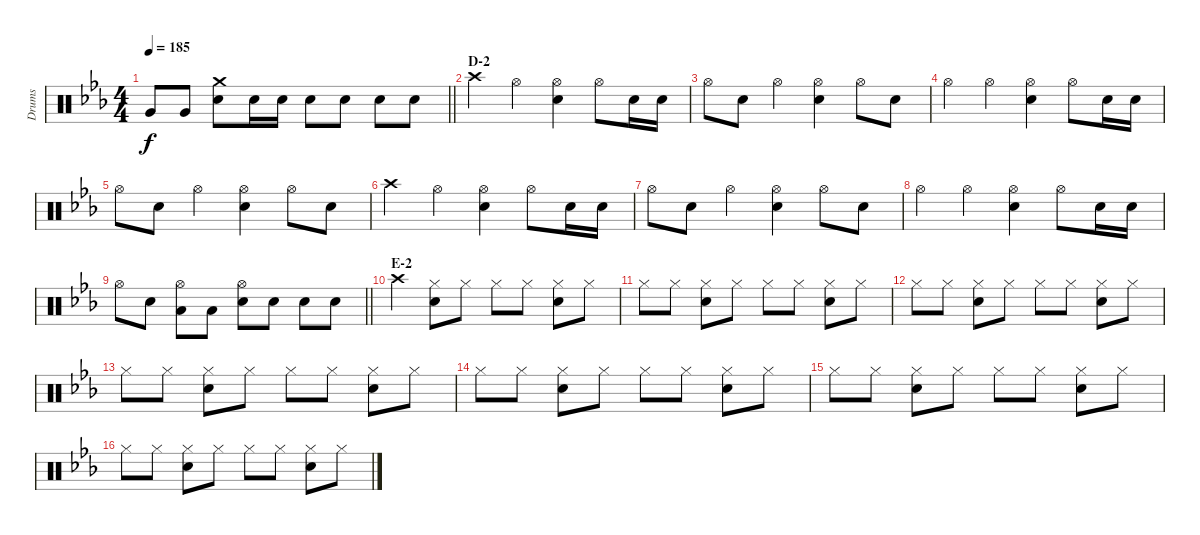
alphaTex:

\track ("Drums" "Drums") {instrument percussion}
\staff {score}
\articulation defaults
\ts (4 4)
\tempo 185
\clef neutral
\barLineRight lightlight
\ks eb "Very Low Tom (hit)".8{dy f} "Very Low Tom (hit)".8
("Crash medium (hit)" "Snare (hit) 2").8 "Snare (hit) 2".16 "Snare (hit) 2".16 "Snare (hit) 2".8 "Snare (hit) 2".8 "Snare (hit) 2".8 "Snare (hit) 2".8 |
\section ("" "D-2")
"Crash high (hit)".4 "Hi-Hat (open)".4 ("Hi-Hat (open)" "Snare (hit) 2").4 "Hi-Hat (open)".8 "Snare (hit) 2".16 "Snare (hit) 2".16 |
"Hi-Hat (open)".8 "Snare (hit) 2".8 "Hi-Hat (open)".4 ("Hi-Hat (open)" "Snare (hit) 2").4 "Hi-Hat (open)".8 "Snare (hit) 2".8 |
"Hi-Hat (open)".4 "Hi-Hat (open)".4 ("Hi-Hat (open)" "Snare (hit) 2").4 "Hi-Hat (open)".8 "Snare (hit) 2".16 "Snare (hit) 2".16 |
"Hi-Hat (open)".8 "Snare (hit) 2".8 "Hi-Hat (open)".4 ("Hi-Hat (open)" "Snare (hit) 2").4 "Hi-Hat (open)".8 "Snare (hit) 2".8 |
"Crash high (hit)".4 "Hi-Hat (open)".4 ("Hi-Hat (open)" "Snare (hit) 2").4 "Hi-Hat (open)".8 "Snare (hit) 2".16 "Snare (hit) 2".16 |
"Hi-Hat (open)".8 "Snare (hit) 2".8 "Hi-Hat (open)".4 ("Hi-Hat (open)" "Snare (hit) 2").4 "Hi-Hat (open)".8 "Snare (hit) 2".8 |
"Hi-Hat (open)".4 "Hi-Hat (open)".4 ("Hi-Hat (open)" "Snare (hit) 2").4 "Hi-Hat (open)".8 "Snare (hit) 2".16 "Snare (hit) 2".16 |
\barLineRight lightlight "Hi-Hat (open)".8 "Snare (hit) 2".8
("Hi-Hat (open)" "Low Tom (hit)").8 "Low Tom (hit)".8 ("Hi-Hat (open)" "Snare (hit) 2").8 "Snare (hit) 2".8 "Snare (hit) 2".8 "Snare (hit) 2".8 |
\section ("" "E-2")
"Crash high (hit)".4 ("Hi-Hat (closed)" "Snare (hit) 2").8 "Hi-Hat (closed)".8 "Hi-Hat (closed)".8 "Hi-Hat (closed)".8 ("Hi-Hat (closed)" "Snare (hit) 2").8 "Hi-Hat (closed)".8 |
"Hi-Hat (closed)".8 "Hi-Hat (closed)".8 ("Hi-Hat (closed)" "Snare (hit) 2").8 "Hi-Hat (closed)".8 "Hi-Hat (closed)".8 "Hi-Hat (closed)".8 ("Hi-Hat (closed)" "Snare (hit) 2").8 "Hi-Hat (closed)".8 |
"Hi-Hat (closed)".8 "Hi-Hat (closed)".8 ("Hi-Hat (closed)" "Snare (hit) 2").8 "Hi-Hat (closed)".8 "Hi-Hat (closed)".8 "Hi-Hat (closed)".8 ("Hi-Hat (closed)" "Snare (hit) 2").8 "Hi-Hat (closed)".8 |
"Hi-Hat (closed)".8 "Hi-Hat (closed)".8 ("Hi-Hat (closed)" "Snare (hit) 2").8 "Hi-Hat (closed)".8 "Hi-Hat (closed)".8 "Hi-Hat (closed)".8 ("Hi-Hat (closed)" "Snare (hit) 2").8 "Hi-Hat (closed)".8 |
"Hi-Hat (closed)".8 "Hi-Hat (closed)".8 ("Hi-Hat (closed)" "Snare (hit) 2").8 "Hi-Hat (closed)".8 "Hi-Hat (closed)".8 "Hi-Hat (closed)".8 ("Hi-Hat (closed)" "Snare (hit) 2").8 "Hi-Hat (closed)".8 |
"Hi-Hat (closed)".8 "Hi-Hat (closed)".8 ("Hi-Hat (closed)" "Snare (hit) 2").8 "Hi-Hat (closed)".8 "Hi-Hat (closed)".8 "Hi-Hat (closed)".8 ("Hi-Hat (closed)" "Snare (hit) 2").8 "Hi-Hat (closed)".8 |
"Hi-Hat (closed)".8 "Hi-Hat (closed)".8 ("Hi-Hat (closed)" "Snare (hit) 2").8 "Hi-Hat (closed)".8 "Hi-Hat (closed)".8 "Hi-Hat (closed)".8 ("Hi-Hat (closed)" "Snare (hit) 2").8 "Hi-Hat (closed)".8
